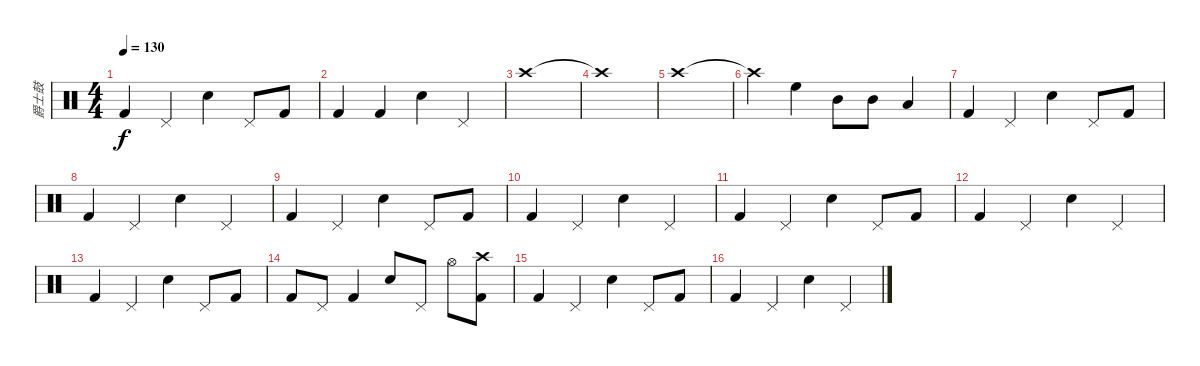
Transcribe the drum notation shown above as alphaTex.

\track ("爵士鼓" "爵士鼓") {instrument percussion}
\staff {score}
\articulation defaults
\ts (4 4)
\tempo 130
\clef neutral
\ks c "Kick (hit) 2".4{dy f} "Pedal Hi-Hat (hit)".4 "Snare (hit) 2".4 "Pedal Hi-Hat (hit)".8 "Kick (hit) 2".8
|
"Kick (hit) 2".4 "Kick (hit) 2".4 "Snare (hit) 2".4 "Pedal Hi-Hat (hit)".4 |
"Crash high (hit)".1 |
"Crash high (hit)"{t}.1 |
"Crash high (hit)".1 |
"Crash high (hit)"{t}.4 "High Floor Tom (hit)".4 "Mid Tom (hit)".8 "Mid Tom (hit)".8 "Low Tom (hit)".4 |
"Kick (hit) 2".4 "Pedal Hi-Hat (hit)".4 "Snare (hit) 2".4 "Pedal Hi-Hat (hit)".8 "Kick (hit) 2".8 |
"Kick (hit) 2".4 "Pedal Hi-Hat (hit)".4 "Snare (hit) 2".4 "Pedal Hi-Hat (hit)".4 |
"Kick (hit) 2".4 "Pedal Hi-Hat (hit)".4 "Snare (hit) 2".4 "Pedal Hi-Hat (hit)".8 "Kick (hit) 2".8 |
"Kick (hit) 2".4 "Pedal Hi-Hat (hit)".4 "Snare (hit) 2".4 "Pedal Hi-Hat (hit)".4 |
"Kick (hit) 2".4 "Pedal Hi-Hat (hit)".4 "Snare (hit) 2".4 "Pedal Hi-Hat (hit)".8 "Kick (hit) 2".8 |
"Kick (hit) 2".4 "Pedal Hi-Hat (hit)".4 "Snare (hit) 2".4 "Pedal Hi-Hat (hit)".4 |
"Kick (hit) 2".4 "Pedal Hi-Hat (hit)".4 "Snare (hit) 2".4 "Pedal Hi-Hat (hit)".8 "Kick (hit) 2".8 |
"Kick (hit) 2".8 "Pedal Hi-Hat (hit)".8 "Kick (hit) 2".4 "Snare (hit) 2".8 "Pedal Hi-Hat (hit)".8 "Hi-Hat (open)".8 ("Kick (hit) 2" "Crash high (hit)").8 |
"Kick (hit) 2".4 "Pedal Hi-Hat (hit)".4 "Snare (hit) 2".4 "Pedal Hi-Hat (hit)".8 "Kick (hit) 2".8 |
"Kick (hit) 2".4 "Pedal Hi-Hat (hit)".4 "Snare (hit) 2".4 "Pedal Hi-Hat (hit)".4
